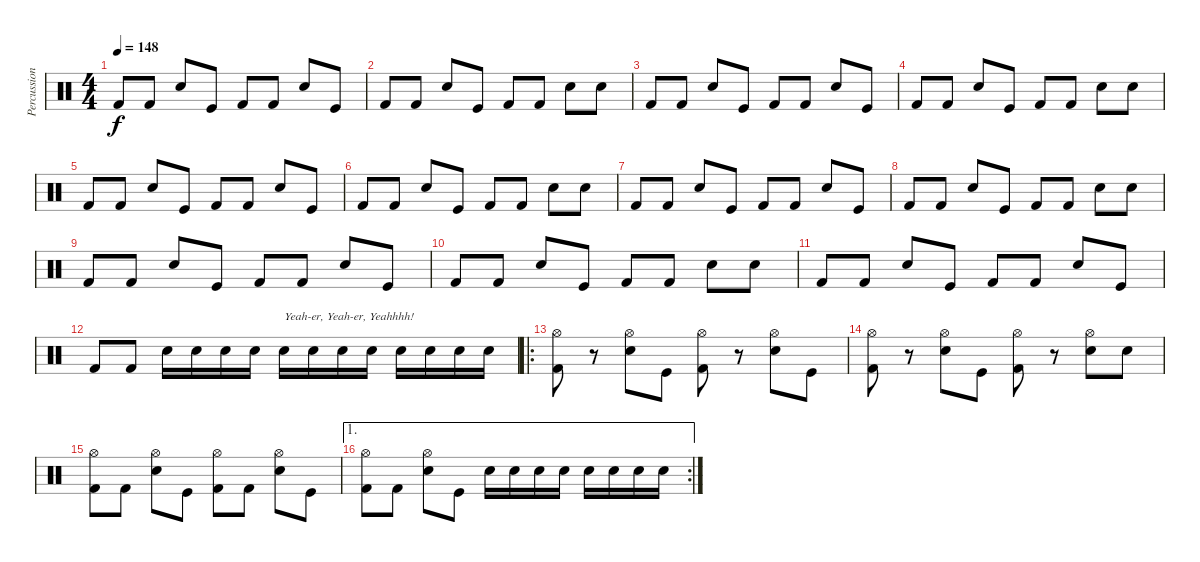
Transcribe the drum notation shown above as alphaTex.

\track ("Percussion" "Percussion") {instrument percussion}
\staff {score}
\articulation defaults
\ts (4 4)
\tempo 148
\clef neutral
\ks c "Kick (hit) 2".8{dy f} "Kick (hit) 2".8 "Snare (hit) 2".8 "Kick (hit)".8 "Kick (hit) 2".8 "Kick (hit) 2".8 "Snare (hit) 2".8 "Kick (hit)".8
|
"Kick (hit) 2".8 "Kick (hit) 2".8 "Snare (hit) 2".8 "Kick (hit)".8 "Kick (hit) 2".8 "Kick (hit) 2".8 "Snare (hit) 2".8 "Snare (hit) 2".8 |
"Kick (hit) 2".8 "Kick (hit) 2".8 "Snare (hit) 2".8 "Kick (hit)".8 "Kick (hit) 2".8 "Kick (hit) 2".8 "Snare (hit) 2".8 "Kick (hit)".8 |
"Kick (hit) 2".8 "Kick (hit) 2".8 "Snare (hit) 2".8 "Kick (hit)".8 "Kick (hit) 2".8 "Kick (hit) 2".8 "Snare (hit) 2".8 "Snare (hit) 2".8 |
"Kick (hit) 2".8 "Kick (hit) 2".8 "Snare (hit) 2".8 "Kick (hit)".8 "Kick (hit) 2".8 "Kick (hit) 2".8 "Snare (hit) 2".8 "Kick (hit)".8 |
"Kick (hit) 2".8 "Kick (hit) 2".8 "Snare (hit) 2".8 "Kick (hit)".8 "Kick (hit) 2".8 "Kick (hit) 2".8 "Snare (hit) 2".8 "Snare (hit) 2".8 |
"Kick (hit) 2".8 "Kick (hit) 2".8 "Snare (hit) 2".8 "Kick (hit)".8 "Kick (hit) 2".8 "Kick (hit) 2".8 "Snare (hit) 2".8 "Kick (hit)".8 |
"Kick (hit) 2".8 "Kick (hit) 2".8 "Snare (hit) 2".8 "Kick (hit)".8 "Kick (hit) 2".8 "Kick (hit) 2".8 "Snare (hit) 2".8 "Snare (hit) 2".8 |
"Kick (hit) 2".8 "Kick (hit) 2".8 "Snare (hit) 2".8 "Kick (hit)".8 "Kick (hit) 2".8 "Kick (hit) 2".8 "Snare (hit) 2".8 "Kick (hit)".8 |
"Kick (hit) 2".8 "Kick (hit) 2".8 "Snare (hit) 2".8 "Kick (hit)".8 "Kick (hit) 2".8 "Kick (hit) 2".8 "Snare (hit) 2".8 "Snare (hit) 2".8 |
"Kick (hit) 2".8 "Kick (hit) 2".8 "Snare (hit) 2".8 "Kick (hit)".8 "Kick (hit) 2".8 "Kick (hit) 2".8 "Snare (hit) 2".8 "Kick (hit)".8 |
"Kick (hit) 2".8 "Kick (hit) 2".8 "Snare (hit) 2".16 "Snare (hit) 2".16 "Snare (hit) 2".16 "Snare (hit) 2".16 "Snare (hit) 2".16{txt "Yeah-er, Yeah-er, Yeahhhh!"} "Snare (hit) 2".16 "Snare (hit) 2".16 "Snare (hit) 2".16 "Snare (hit) 2".16 "Snare (hit) 2".16 "Snare (hit) 2".16 "Snare (hit) 2".16 |
\ro
("Hi-Hat (open)" "Kick (hit) 2").8 r.8 ("Hi-Hat (open)" "Snare (hit) 2").8 "Kick (hit)".8 ("Hi-Hat (open)" "Kick (hit) 2").8 r.8 ("Hi-Hat (open)" "Snare (hit) 2").8 "Kick (hit)".8 |
("Hi-Hat (open)" "Kick (hit) 2").8 r.8 ("Hi-Hat (open)" "Snare (hit) 2").8 "Kick (hit)".8 ("Hi-Hat (open)" "Kick (hit) 2").8 r.8 ("Hi-Hat (open)" "Snare (hit) 2").8 "Snare (hit) 2".8 |
("Hi-Hat (open)" "Kick (hit) 2").8 "Kick (hit) 2".8 ("Hi-Hat (open)" "Snare (hit) 2").8 "Kick (hit)".8 ("Hi-Hat (open)" "Kick (hit) 2").8 "Kick (hit) 2".8 ("Hi-Hat (open)" "Snare (hit) 2").8 "Kick (hit)".8 |
\ae 1
\rc 2
("Hi-Hat (open)" "Kick (hit) 2").8 "Kick (hit) 2".8 ("Hi-Hat (open)" "Snare (hit) 2").8 "Kick (hit)".8 "Snare (hit) 2".16 "Snare (hit) 2".16 "Snare (hit) 2".16 "Snare (hit) 2".16 "Snare (hit) 2".16 "Snare (hit) 2".16 "Snare (hit) 2".16 "Snare (hit) 2".16
